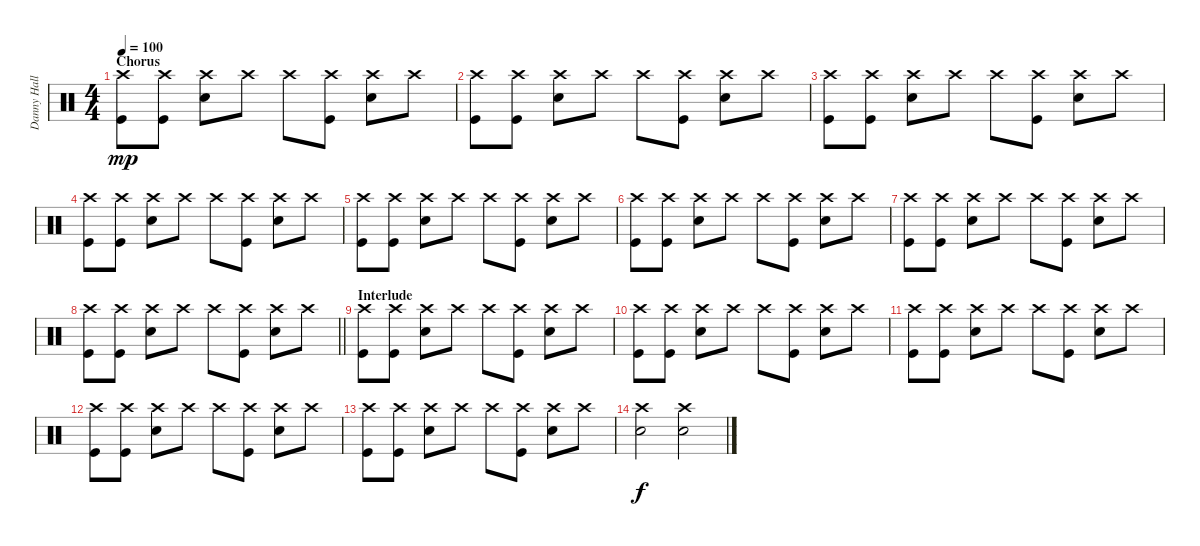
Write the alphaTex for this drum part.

\track ("Danny Hall" "Danny Hall") {instrument percussion}
\staff {score}
\articulation defaults
\ts (4 4)
\section ("" "Chorus")
\tempo 100
\clef neutral
\ks c
("Crash high (hit)" "Kick (hit)").8{dy mp} ("Crash high (hit)" "Kick (hit)").8 ("Crash high (hit)" "Snare (hit) 2").8 "Crash high (hit)".8 "Crash high (hit)".8 ("Crash high (hit)" "Kick (hit)").8 ("Crash high (hit)" "Snare (hit) 2").8 "Crash high (hit)".8 |
("Crash high (hit)" "Kick (hit)").8 ("Crash high (hit)" "Kick (hit)").8 ("Crash high (hit)" "Snare (hit) 2").8 "Crash high (hit)".8 "Crash high (hit)".8 ("Crash high (hit)" "Kick (hit)").8 ("Crash high (hit)" "Snare (hit) 2").8 "Crash high (hit)".8 |
("Crash high (hit)" "Kick (hit)").8 ("Crash high (hit)" "Kick (hit)").8 ("Crash high (hit)" "Snare (hit) 2").8 "Crash high (hit)".8 "Crash high (hit)".8 ("Crash high (hit)" "Kick (hit)").8 ("Crash high (hit)" "Snare (hit) 2").8 "Crash high (hit)".8 |
("Crash high (hit)" "Kick (hit)").8 ("Crash high (hit)" "Kick (hit)").8 ("Crash high (hit)" "Snare (hit) 2").8 "Crash high (hit)".8 "Crash high (hit)".8 ("Crash high (hit)" "Kick (hit)").8 ("Crash high (hit)" "Snare (hit) 2").8 "Crash high (hit)".8 |
("Crash high (hit)" "Kick (hit)").8 ("Crash high (hit)" "Kick (hit)").8 ("Crash high (hit)" "Snare (hit) 2").8 "Crash high (hit)".8 "Crash high (hit)".8 ("Crash high (hit)" "Kick (hit)").8 ("Crash high (hit)" "Snare (hit) 2").8 "Crash high (hit)".8 |
("Crash high (hit)" "Kick (hit)").8 ("Crash high (hit)" "Kick (hit)").8 ("Crash high (hit)" "Snare (hit) 2").8 "Crash high (hit)".8 "Crash high (hit)".8 ("Crash high (hit)" "Kick (hit)").8 ("Crash high (hit)" "Snare (hit) 2").8 "Crash high (hit)".8 |
("Crash high (hit)" "Kick (hit)").8 ("Crash high (hit)" "Kick (hit)").8 ("Crash high (hit)" "Snare (hit) 2").8 "Crash high (hit)".8 "Crash high (hit)".8 ("Crash high (hit)" "Kick (hit)").8 ("Crash high (hit)" "Snare (hit) 2").8 "Crash high (hit)".8 |
\barLineRight lightlight
("Crash high (hit)" "Kick (hit)").8 ("Crash high (hit)" "Kick (hit)").8 ("Crash high (hit)" "Snare (hit) 2").8 "Crash high (hit)".8 "Crash high (hit)".8 ("Crash high (hit)" "Kick (hit)").8 ("Crash high (hit)" "Snare (hit) 2").8 "Crash high (hit)".8 |
\section ("" "Interlude")
("Crash high (hit)" "Kick (hit)").8 ("Crash high (hit)" "Kick (hit)").8 ("Crash high (hit)" "Snare (hit) 2").8 "Crash high (hit)".8 "Crash high (hit)".8 ("Crash high (hit)" "Kick (hit)").8 ("Crash high (hit)" "Snare (hit) 2").8 "Crash high (hit)".8 |
("Crash high (hit)" "Kick (hit)").8 ("Crash high (hit)" "Kick (hit)").8 ("Crash high (hit)" "Snare (hit) 2").8 "Crash high (hit)".8 "Crash high (hit)".8 ("Crash high (hit)" "Kick (hit)").8 ("Crash high (hit)" "Snare (hit) 2").8 "Crash high (hit)".8 |
("Crash high (hit)" "Kick (hit)").8 ("Crash high (hit)" "Kick (hit)").8 ("Crash high (hit)" "Snare (hit) 2").8 "Crash high (hit)".8 "Crash high (hit)".8 ("Crash high (hit)" "Kick (hit)").8 ("Crash high (hit)" "Snare (hit) 2").8 "Crash high (hit)".8 |
("Crash high (hit)" "Kick (hit)").8 ("Crash high (hit)" "Kick (hit)").8 ("Crash high (hit)" "Snare (hit) 2").8 "Crash high (hit)".8 "Crash high (hit)".8 ("Crash high (hit)" "Kick (hit)").8 ("Crash high (hit)" "Snare (hit) 2").8 "Crash high (hit)".8 |
("Crash high (hit)" "Kick (hit)").8 ("Crash high (hit)" "Kick (hit)").8 ("Crash high (hit)" "Snare (hit) 2").8 "Crash high (hit)".8 "Crash high (hit)".8 ("Crash high (hit)" "Kick (hit)").8 ("Crash high (hit)" "Snare (hit) 2").8 "Crash high (hit)".8 |
("Crash high (hit)" "Snare (hit) 2").2{dy f} ("Crash high (hit)" "Snare (hit) 2").2
